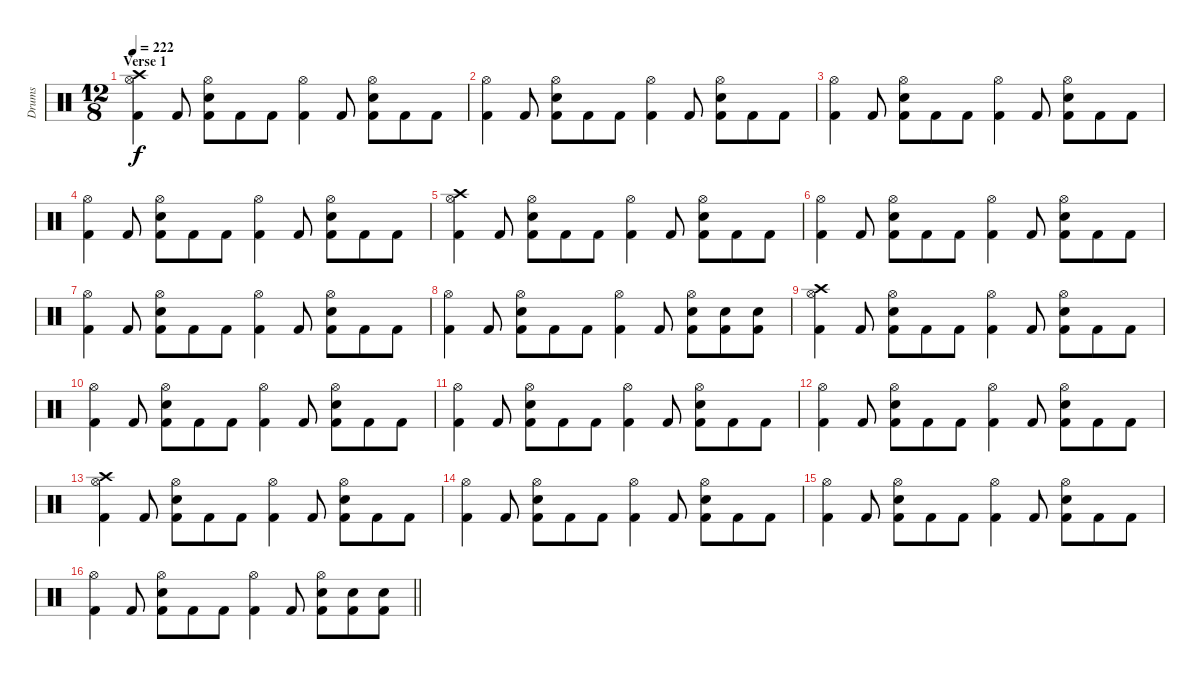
\track ("Drums" "Drums") {instrument percussion}
\staff {score}
\articulation defaults
\ts (12 8)
\section ("" "Verse 1")
\tempo 222
\clef neutral
\ks c
("Crash high (hit)" "Hi-Hat (open)" "Kick (hit) 2").4{dy f} "Kick (hit) 2".8 ("Hi-Hat (open)" "Snare (hit) 2" "Kick (hit) 2").8 "Kick (hit) 2".8 "Kick (hit) 2".8 ("Hi-Hat (open)" "Kick (hit) 2").4 "Kick (hit) 2".8 ("Hi-Hat (open)" "Snare (hit) 2" "Kick (hit) 2").8 "Kick (hit) 2".8 "Kick (hit) 2".8 |
("Hi-Hat (open)" "Kick (hit) 2").4 "Kick (hit) 2".8 ("Hi-Hat (open)" "Snare (hit) 2" "Kick (hit) 2").8 "Kick (hit) 2".8 "Kick (hit) 2".8 ("Hi-Hat (open)" "Kick (hit) 2").4 "Kick (hit) 2".8 ("Hi-Hat (open)" "Snare (hit) 2" "Kick (hit) 2").8 "Kick (hit) 2".8 "Kick (hit) 2".8 |
("Hi-Hat (open)" "Kick (hit) 2").4 "Kick (hit) 2".8 ("Hi-Hat (open)" "Snare (hit) 2" "Kick (hit) 2").8 "Kick (hit) 2".8 "Kick (hit) 2".8 ("Hi-Hat (open)" "Kick (hit) 2").4 "Kick (hit) 2".8 ("Hi-Hat (open)" "Snare (hit) 2" "Kick (hit) 2").8 "Kick (hit) 2".8 "Kick (hit) 2".8 |
("Hi-Hat (open)" "Kick (hit) 2").4 "Kick (hit) 2".8 ("Hi-Hat (open)" "Snare (hit) 2" "Kick (hit) 2").8 "Kick (hit) 2".8 "Kick (hit) 2".8 ("Hi-Hat (open)" "Kick (hit) 2").4 "Kick (hit) 2".8 ("Hi-Hat (open)" "Snare (hit) 2" "Kick (hit) 2").8 "Kick (hit) 2".8 "Kick (hit) 2".8 |
("Crash high (hit)" "Hi-Hat (open)" "Kick (hit) 2").4 "Kick (hit) 2".8 ("Hi-Hat (open)" "Snare (hit) 2" "Kick (hit) 2").8 "Kick (hit) 2".8 "Kick (hit) 2".8 ("Hi-Hat (open)" "Kick (hit) 2").4 "Kick (hit) 2".8 ("Hi-Hat (open)" "Snare (hit) 2" "Kick (hit) 2").8 "Kick (hit) 2".8 "Kick (hit) 2".8 |
("Hi-Hat (open)" "Kick (hit) 2").4 "Kick (hit) 2".8 ("Hi-Hat (open)" "Snare (hit) 2" "Kick (hit) 2").8 "Kick (hit) 2".8 "Kick (hit) 2".8 ("Hi-Hat (open)" "Kick (hit) 2").4 "Kick (hit) 2".8 ("Hi-Hat (open)" "Snare (hit) 2" "Kick (hit) 2").8 "Kick (hit) 2".8 "Kick (hit) 2".8 |
("Hi-Hat (open)" "Kick (hit) 2").4 "Kick (hit) 2".8 ("Hi-Hat (open)" "Snare (hit) 2" "Kick (hit) 2").8 "Kick (hit) 2".8 "Kick (hit) 2".8 ("Hi-Hat (open)" "Kick (hit) 2").4 "Kick (hit) 2".8 ("Hi-Hat (open)" "Snare (hit) 2" "Kick (hit) 2").8 "Kick (hit) 2".8 "Kick (hit) 2".8 |
("Hi-Hat (open)" "Kick (hit) 2").4 "Kick (hit) 2".8 ("Hi-Hat (open)" "Snare (hit) 2" "Kick (hit) 2").8 "Kick (hit) 2".8 "Kick (hit) 2".8 ("Hi-Hat (open)" "Kick (hit) 2").4 "Kick (hit) 2".8 ("Hi-Hat (open)" "Snare (hit) 2" "Kick (hit) 2").8 ("Snare (hit) 2" "Kick (hit) 2").8 ("Snare (hit) 2" "Kick (hit) 2").8 |
("Crash high (hit)" "Hi-Hat (open)" "Kick (hit) 2").4 "Kick (hit) 2".8 ("Hi-Hat (open)" "Snare (hit) 2" "Kick (hit) 2").8 "Kick (hit) 2".8 "Kick (hit) 2".8 ("Hi-Hat (open)" "Kick (hit) 2").4 "Kick (hit) 2".8 ("Hi-Hat (open)" "Snare (hit) 2" "Kick (hit) 2").8 "Kick (hit) 2".8 "Kick (hit) 2".8 |
("Hi-Hat (open)" "Kick (hit) 2").4 "Kick (hit) 2".8 ("Hi-Hat (open)" "Snare (hit) 2" "Kick (hit) 2").8 "Kick (hit) 2".8 "Kick (hit) 2".8 ("Hi-Hat (open)" "Kick (hit) 2").4 "Kick (hit) 2".8 ("Hi-Hat (open)" "Snare (hit) 2" "Kick (hit) 2").8 "Kick (hit) 2".8 "Kick (hit) 2".8 |
("Hi-Hat (open)" "Kick (hit) 2").4 "Kick (hit) 2".8 ("Hi-Hat (open)" "Snare (hit) 2" "Kick (hit) 2").8 "Kick (hit) 2".8 "Kick (hit) 2".8 ("Hi-Hat (open)" "Kick (hit) 2").4 "Kick (hit) 2".8 ("Hi-Hat (open)" "Snare (hit) 2" "Kick (hit) 2").8 "Kick (hit) 2".8 "Kick (hit) 2".8 |
("Hi-Hat (open)" "Kick (hit) 2").4 "Kick (hit) 2".8 ("Hi-Hat (open)" "Snare (hit) 2" "Kick (hit) 2").8 "Kick (hit) 2".8 "Kick (hit) 2".8 ("Hi-Hat (open)" "Kick (hit) 2").4 "Kick (hit) 2".8 ("Hi-Hat (open)" "Snare (hit) 2" "Kick (hit) 2").8 "Kick (hit) 2".8 "Kick (hit) 2".8 |
("Crash high (hit)" "Hi-Hat (open)" "Kick (hit) 2").4 "Kick (hit) 2".8 ("Hi-Hat (open)" "Snare (hit) 2" "Kick (hit) 2").8 "Kick (hit) 2".8 "Kick (hit) 2".8 ("Hi-Hat (open)" "Kick (hit) 2").4 "Kick (hit) 2".8 ("Hi-Hat (open)" "Snare (hit) 2" "Kick (hit) 2").8 "Kick (hit) 2".8 "Kick (hit) 2".8 |
("Hi-Hat (open)" "Kick (hit) 2").4 "Kick (hit) 2".8 ("Hi-Hat (open)" "Snare (hit) 2" "Kick (hit) 2").8 "Kick (hit) 2".8 "Kick (hit) 2".8 ("Hi-Hat (open)" "Kick (hit) 2").4 "Kick (hit) 2".8 ("Hi-Hat (open)" "Snare (hit) 2" "Kick (hit) 2").8 "Kick (hit) 2".8 "Kick (hit) 2".8 |
("Hi-Hat (open)" "Kick (hit) 2").4 "Kick (hit) 2".8 ("Hi-Hat (open)" "Snare (hit) 2" "Kick (hit) 2").8 "Kick (hit) 2".8 "Kick (hit) 2".8 ("Hi-Hat (open)" "Kick (hit) 2").4 "Kick (hit) 2".8 ("Hi-Hat (open)" "Snare (hit) 2" "Kick (hit) 2").8 "Kick (hit) 2".8 "Kick (hit) 2".8 |
\barLineRight lightlight
("Hi-Hat (open)" "Kick (hit) 2").4 "Kick (hit) 2".8 ("Hi-Hat (open)" "Snare (hit) 2" "Kick (hit) 2").8 "Kick (hit) 2".8 "Kick (hit) 2".8 ("Hi-Hat (open)" "Kick (hit) 2").4 "Kick (hit) 2".8 ("Hi-Hat (open)" "Snare (hit) 2" "Kick (hit) 2").8 ("Snare (hit) 2" "Kick (hit) 2").8 ("Snare (hit) 2" "Kick (hit) 2").8
